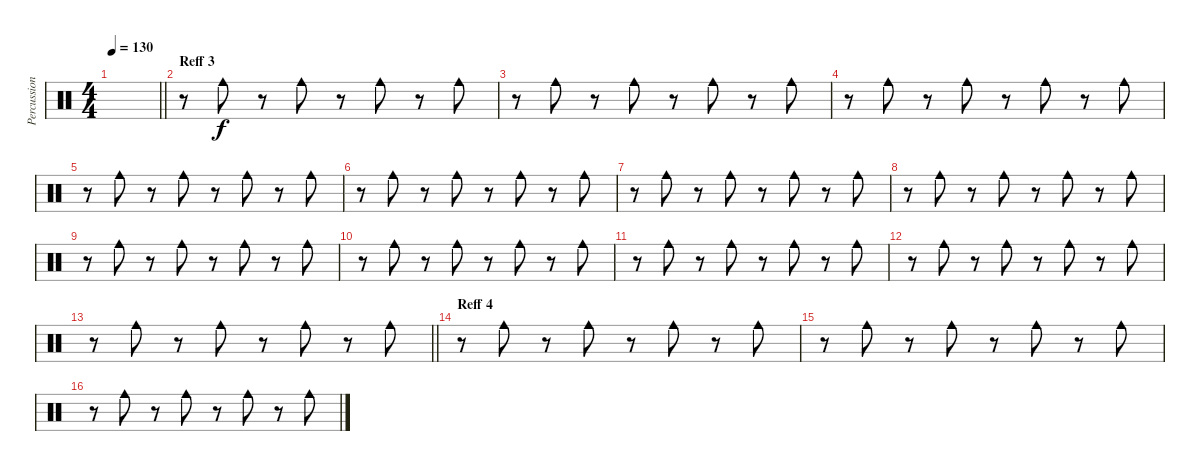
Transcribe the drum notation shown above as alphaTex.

\track ("Percussion 2" "Percussion") {instrument percussion}
\staff {score}
\articulation defaults
\ts (4 4)
\tempo 130
\clef neutral
\barLineRight lightlight
\ks c
|
\section ("" "Reff 3")
r.8 "Cowbell medium (hit)".8 r.8 "Cowbell medium (hit)".8 r.8 "Cowbell medium (hit)".8 r.8 "Cowbell medium (hit)".8 |
r.8 "Cowbell medium (hit)".8 r.8 "Cowbell medium (hit)".8 r.8 "Cowbell medium (hit)".8 r.8 "Cowbell medium (hit)".8 |
r.8 "Cowbell medium (hit)".8 r.8 "Cowbell medium (hit)".8 r.8 "Cowbell medium (hit)".8 r.8 "Cowbell medium (hit)".8 |
r.8 "Cowbell medium (hit)".8 r.8 "Cowbell medium (hit)".8 r.8 "Cowbell medium (hit)".8 r.8 "Cowbell medium (hit)".8 |
r.8 "Cowbell medium (hit)".8 r.8 "Cowbell medium (hit)".8 r.8 "Cowbell medium (hit)".8 r.8 "Cowbell medium (hit)".8 |
r.8 "Cowbell medium (hit)".8 r.8 "Cowbell medium (hit)".8 r.8 "Cowbell medium (hit)".8 r.8 "Cowbell medium (hit)".8 |
r.8 "Cowbell medium (hit)".8 r.8 "Cowbell medium (hit)".8 r.8 "Cowbell medium (hit)".8 r.8 "Cowbell medium (hit)".8 |
r.8 "Cowbell medium (hit)".8 r.8 "Cowbell medium (hit)".8 r.8 "Cowbell medium (hit)".8 r.8 "Cowbell medium (hit)".8 |
r.8 "Cowbell medium (hit)".8 r.8 "Cowbell medium (hit)".8 r.8 "Cowbell medium (hit)".8 r.8 "Cowbell medium (hit)".8 |
r.8 "Cowbell medium (hit)".8 r.8 "Cowbell medium (hit)".8 r.8 "Cowbell medium (hit)".8 r.8 "Cowbell medium (hit)".8 |
r.8 "Cowbell medium (hit)".8 r.8 "Cowbell medium (hit)".8 r.8 "Cowbell medium (hit)".8 r.8 "Cowbell medium (hit)".8 |
\barLineRight lightlight
r.8 "Cowbell medium (hit)".8 r.8 "Cowbell medium (hit)".8 r.8 "Cowbell medium (hit)".8 r.8 "Cowbell medium (hit)".8 |
\section ("" "Reff 4")
r.8 "Cowbell medium (hit)".8 r.8 "Cowbell medium (hit)".8 r.8 "Cowbell medium (hit)".8 r.8 "Cowbell medium (hit)".8 |
r.8 "Cowbell medium (hit)".8 r.8 "Cowbell medium (hit)".8 r.8 "Cowbell medium (hit)".8 r.8 "Cowbell medium (hit)".8 |
r.8 "Cowbell medium (hit)".8 r.8 "Cowbell medium (hit)".8 r.8 "Cowbell medium (hit)".8 r.8 "Cowbell medium (hit)".8
